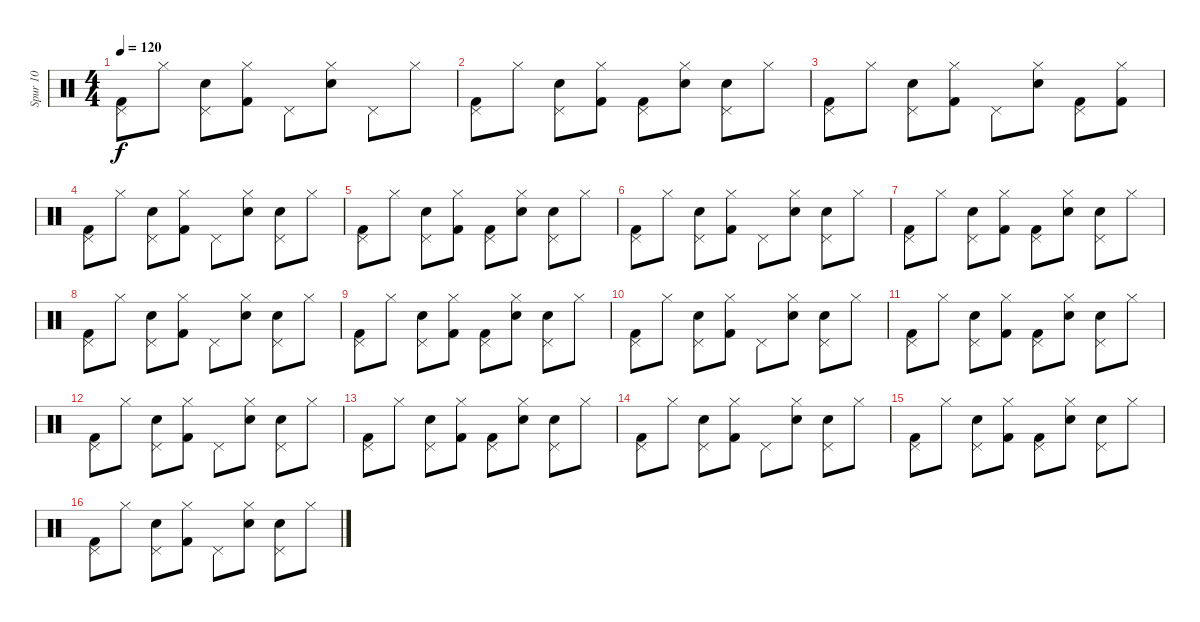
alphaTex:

\track ("Spur 10" "Spur 10") {instrument percussion}
\staff {score}
\articulation defaults
\ts (4 4)
\tempo 120
\clef neutral
\ks c
("Pedal Hi-Hat (hit)" "Kick (hit) 2").8{dy f} "Hi-Hat (closed)".8 ("Pedal Hi-Hat (hit)" "Snare (hit) 2").8 ("Hi-Hat (closed)" "Kick (hit) 2").8 "Pedal Hi-Hat (hit)".8 ("Hi-Hat (closed)" "Snare (hit) 2").8 "Pedal Hi-Hat (hit)".8 "Hi-Hat (closed)".8 |
("Pedal Hi-Hat (hit)" "Kick (hit) 2").8 "Hi-Hat (closed)".8 ("Pedal Hi-Hat (hit)" "Snare (hit) 2").8 ("Hi-Hat (closed)" "Kick (hit) 2").8 ("Pedal Hi-Hat (hit)" "Kick (hit) 2").8 ("Hi-Hat (closed)" "Snare (hit) 2").8 ("Pedal Hi-Hat (hit)" "Snare (hit) 2").8 "Hi-Hat (closed)".8 |
("Pedal Hi-Hat (hit)" "Kick (hit) 2").8 "Hi-Hat (closed)".8 ("Pedal Hi-Hat (hit)" "Snare (hit) 2").8 ("Hi-Hat (closed)" "Kick (hit) 2").8 "Pedal Hi-Hat (hit)".8 ("Hi-Hat (closed)" "Snare (hit) 2").8 ("Pedal Hi-Hat (hit)" "Kick (hit) 2").8 ("Kick (hit) 2" "Hi-Hat (closed)").8 |
("Pedal Hi-Hat (hit)" "Kick (hit) 2").8 "Hi-Hat (closed)".8 ("Pedal Hi-Hat (hit)" "Snare (hit) 2").8 ("Hi-Hat (closed)" "Kick (hit) 2").8 "Pedal Hi-Hat (hit)".8 ("Hi-Hat (closed)" "Snare (hit) 2").8 ("Pedal Hi-Hat (hit)" "Snare (hit) 2").8 "Hi-Hat (closed)".8 |
("Pedal Hi-Hat (hit)" "Kick (hit) 2").8 "Hi-Hat (closed)".8 ("Pedal Hi-Hat (hit)" "Snare (hit) 2").8 ("Hi-Hat (closed)" "Kick (hit) 2").8 ("Pedal Hi-Hat (hit)" "Kick (hit) 2").8 ("Hi-Hat (closed)" "Snare (hit) 2").8 ("Pedal Hi-Hat (hit)" "Snare (hit) 2").8 "Hi-Hat (closed)".8 |
("Pedal Hi-Hat (hit)" "Kick (hit) 2").8 "Hi-Hat (closed)".8 ("Pedal Hi-Hat (hit)" "Snare (hit) 2").8 ("Hi-Hat (closed)" "Kick (hit) 2").8 "Pedal Hi-Hat (hit)".8 ("Hi-Hat (closed)" "Snare (hit) 2").8 ("Pedal Hi-Hat (hit)" "Snare (hit) 2").8 "Hi-Hat (closed)".8 |
("Pedal Hi-Hat (hit)" "Kick (hit) 2").8 "Hi-Hat (closed)".8 ("Pedal Hi-Hat (hit)" "Snare (hit) 2").8 ("Hi-Hat (closed)" "Kick (hit) 2").8 ("Pedal Hi-Hat (hit)" "Kick (hit) 2").8 ("Hi-Hat (closed)" "Snare (hit) 2").8 ("Pedal Hi-Hat (hit)" "Snare (hit) 2").8 "Hi-Hat (closed)".8 |
("Pedal Hi-Hat (hit)" "Kick (hit) 2").8 "Hi-Hat (closed)".8 ("Pedal Hi-Hat (hit)" "Snare (hit) 2").8 ("Hi-Hat (closed)" "Kick (hit) 2").8 "Pedal Hi-Hat (hit)".8 ("Hi-Hat (closed)" "Snare (hit) 2").8 ("Pedal Hi-Hat (hit)" "Snare (hit) 2").8 "Hi-Hat (closed)".8 |
("Pedal Hi-Hat (hit)" "Kick (hit) 2").8 "Hi-Hat (closed)".8 ("Pedal Hi-Hat (hit)" "Snare (hit) 2").8 ("Hi-Hat (closed)" "Kick (hit) 2").8 ("Pedal Hi-Hat (hit)" "Kick (hit) 2").8 ("Hi-Hat (closed)" "Snare (hit) 2").8 ("Pedal Hi-Hat (hit)" "Snare (hit) 2").8 "Hi-Hat (closed)".8 |
("Pedal Hi-Hat (hit)" "Kick (hit) 2").8 "Hi-Hat (closed)".8 ("Pedal Hi-Hat (hit)" "Snare (hit) 2").8 ("Hi-Hat (closed)" "Kick (hit) 2").8 "Pedal Hi-Hat (hit)".8 ("Hi-Hat (closed)" "Snare (hit) 2").8 ("Pedal Hi-Hat (hit)" "Snare (hit) 2").8 "Hi-Hat (closed)".8 |
("Pedal Hi-Hat (hit)" "Kick (hit) 2").8 "Hi-Hat (closed)".8 ("Pedal Hi-Hat (hit)" "Snare (hit) 2").8 ("Hi-Hat (closed)" "Kick (hit) 2").8 ("Pedal Hi-Hat (hit)" "Kick (hit) 2").8 ("Hi-Hat (closed)" "Snare (hit) 2").8 ("Pedal Hi-Hat (hit)" "Snare (hit) 2").8 "Hi-Hat (closed)".8 |
("Pedal Hi-Hat (hit)" "Kick (hit) 2").8 "Hi-Hat (closed)".8 ("Pedal Hi-Hat (hit)" "Snare (hit) 2").8 ("Hi-Hat (closed)" "Kick (hit) 2").8 "Pedal Hi-Hat (hit)".8 ("Hi-Hat (closed)" "Snare (hit) 2").8 ("Pedal Hi-Hat (hit)" "Snare (hit) 2").8 "Hi-Hat (closed)".8 |
("Pedal Hi-Hat (hit)" "Kick (hit) 2").8 "Hi-Hat (closed)".8 ("Pedal Hi-Hat (hit)" "Snare (hit) 2").8 ("Hi-Hat (closed)" "Kick (hit) 2").8 ("Pedal Hi-Hat (hit)" "Kick (hit) 2").8 ("Hi-Hat (closed)" "Snare (hit) 2").8 ("Pedal Hi-Hat (hit)" "Snare (hit) 2").8 "Hi-Hat (closed)".8 |
("Pedal Hi-Hat (hit)" "Kick (hit) 2").8 "Hi-Hat (closed)".8 ("Pedal Hi-Hat (hit)" "Snare (hit) 2").8 ("Hi-Hat (closed)" "Kick (hit) 2").8 "Pedal Hi-Hat (hit)".8 ("Hi-Hat (closed)" "Snare (hit) 2").8 ("Pedal Hi-Hat (hit)" "Snare (hit) 2").8 "Hi-Hat (closed)".8 |
("Pedal Hi-Hat (hit)" "Kick (hit) 2").8 "Hi-Hat (closed)".8 ("Pedal Hi-Hat (hit)" "Snare (hit) 2").8 ("Hi-Hat (closed)" "Kick (hit) 2").8 ("Pedal Hi-Hat (hit)" "Kick (hit) 2").8 ("Hi-Hat (closed)" "Snare (hit) 2").8 ("Pedal Hi-Hat (hit)" "Snare (hit) 2").8 "Hi-Hat (closed)".8 |
("Pedal Hi-Hat (hit)" "Kick (hit) 2").8 "Hi-Hat (closed)".8 ("Pedal Hi-Hat (hit)" "Snare (hit) 2").8 ("Hi-Hat (closed)" "Kick (hit) 2").8 "Pedal Hi-Hat (hit)".8 ("Hi-Hat (closed)" "Snare (hit) 2").8 ("Pedal Hi-Hat (hit)" "Snare (hit) 2").8 "Hi-Hat (closed)".8
